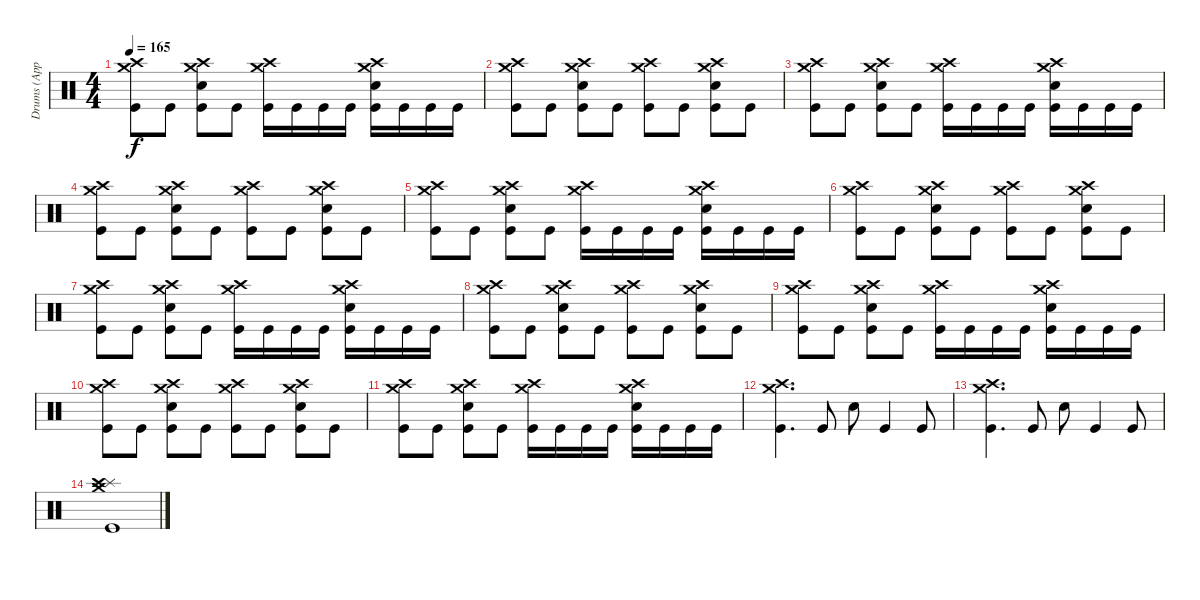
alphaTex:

\track ("Drums (Approx.)" "Drums (App") {instrument percussion}
\staff {score}
\articulation defaults
\ts (4 4)
\tempo 165
\clef neutral
\ks c
("Crash medium (hit)" "Crash high (hit)" "Kick (hit)").8{dy f} "Kick (hit)".8 ("Crash medium (hit)" "Crash high (hit)" "Electric Snare (hit)" "Kick (hit)").8 "Kick (hit)".8 ("Crash medium (hit)" "Crash high (hit)" "Kick (hit)").16 "Kick (hit)".16 "Kick (hit)".16 "Kick (hit)".16 ("Crash medium (hit)" "Crash high (hit)" "Electric Snare (hit)" "Kick (hit)").16 "Kick (hit)".16 "Kick (hit)".16 "Kick (hit)".16 |
("Crash medium (hit)" "Crash high (hit)" "Kick (hit)").8 "Kick (hit)".8 ("Crash medium (hit)" "Crash high (hit)" "Electric Snare (hit)" "Kick (hit)").8 "Kick (hit)".8 ("Crash medium (hit)" "Crash high (hit)" "Kick (hit)").8 "Kick (hit)".8 ("Crash medium (hit)" "Crash high (hit)" "Electric Snare (hit)" "Kick (hit)").8 "Kick (hit)".8 |
("Crash medium (hit)" "Crash high (hit)" "Kick (hit)").8 "Kick (hit)".8 ("Crash medium (hit)" "Crash high (hit)" "Electric Snare (hit)" "Kick (hit)").8 "Kick (hit)".8 ("Crash medium (hit)" "Crash high (hit)" "Kick (hit)").16 "Kick (hit)".16 "Kick (hit)".16 "Kick (hit)".16 ("Crash medium (hit)" "Crash high (hit)" "Electric Snare (hit)" "Kick (hit)").16 "Kick (hit)".16 "Kick (hit)".16 "Kick (hit)".16 |
("Crash medium (hit)" "Crash high (hit)" "Kick (hit)").8 "Kick (hit)".8 ("Crash medium (hit)" "Crash high (hit)" "Electric Snare (hit)" "Kick (hit)").8 "Kick (hit)".8 ("Crash medium (hit)" "Crash high (hit)" "Kick (hit)").8 "Kick (hit)".8 ("Crash medium (hit)" "Crash high (hit)" "Electric Snare (hit)" "Kick (hit)").8 "Kick (hit)".8 |
("Crash medium (hit)" "Crash high (hit)" "Kick (hit)").8 "Kick (hit)".8 ("Crash medium (hit)" "Crash high (hit)" "Electric Snare (hit)" "Kick (hit)").8 "Kick (hit)".8 ("Crash medium (hit)" "Crash high (hit)" "Kick (hit)").16 "Kick (hit)".16 "Kick (hit)".16 "Kick (hit)".16 ("Crash medium (hit)" "Crash high (hit)" "Electric Snare (hit)" "Kick (hit)").16 "Kick (hit)".16 "Kick (hit)".16 "Kick (hit)".16 |
("Crash medium (hit)" "Crash high (hit)" "Kick (hit)").8 "Kick (hit)".8 ("Crash medium (hit)" "Crash high (hit)" "Electric Snare (hit)" "Kick (hit)").8 "Kick (hit)".8 ("Crash medium (hit)" "Crash high (hit)" "Kick (hit)").8 "Kick (hit)".8 ("Crash medium (hit)" "Crash high (hit)" "Electric Snare (hit)" "Kick (hit)").8 "Kick (hit)".8 |
("Crash medium (hit)" "Crash high (hit)" "Kick (hit)").8 "Kick (hit)".8 ("Crash medium (hit)" "Crash high (hit)" "Electric Snare (hit)" "Kick (hit)").8 "Kick (hit)".8 ("Crash medium (hit)" "Crash high (hit)" "Kick (hit)").16 "Kick (hit)".16 "Kick (hit)".16 "Kick (hit)".16 ("Crash medium (hit)" "Crash high (hit)" "Electric Snare (hit)" "Kick (hit)").16 "Kick (hit)".16 "Kick (hit)".16 "Kick (hit)".16 |
("Crash medium (hit)" "Crash high (hit)" "Kick (hit)").8 "Kick (hit)".8 ("Crash medium (hit)" "Crash high (hit)" "Electric Snare (hit)" "Kick (hit)").8 "Kick (hit)".8 ("Crash medium (hit)" "Crash high (hit)" "Kick (hit)").8 "Kick (hit)".8 ("Crash medium (hit)" "Crash high (hit)" "Electric Snare (hit)" "Kick (hit)").8 "Kick (hit)".8 |
("Crash medium (hit)" "Crash high (hit)" "Kick (hit)").8 "Kick (hit)".8 ("Crash medium (hit)" "Crash high (hit)" "Electric Snare (hit)" "Kick (hit)").8 "Kick (hit)".8 ("Crash medium (hit)" "Crash high (hit)" "Kick (hit)").16 "Kick (hit)".16 "Kick (hit)".16 "Kick (hit)".16 ("Crash medium (hit)" "Crash high (hit)" "Electric Snare (hit)" "Kick (hit)").16 "Kick (hit)".16 "Kick (hit)".16 "Kick (hit)".16 |
("Crash medium (hit)" "Crash high (hit)" "Kick (hit)").8 "Kick (hit)".8 ("Crash medium (hit)" "Crash high (hit)" "Electric Snare (hit)" "Kick (hit)").8 "Kick (hit)".8 ("Crash medium (hit)" "Crash high (hit)" "Kick (hit)").8 "Kick (hit)".8 ("Crash medium (hit)" "Crash high (hit)" "Electric Snare (hit)" "Kick (hit)").8 "Kick (hit)".8 |
("Crash medium (hit)" "Crash high (hit)" "Kick (hit)").8 "Kick (hit)".8 ("Crash medium (hit)" "Crash high (hit)" "Electric Snare (hit)" "Kick (hit)").8 "Kick (hit)".8 ("Crash medium (hit)" "Crash high (hit)" "Kick (hit)").16 "Kick (hit)".16 "Kick (hit)".16 "Kick (hit)".16 ("Crash medium (hit)" "Crash high (hit)" "Electric Snare (hit)" "Kick (hit)").16 "Kick (hit)".16 "Kick (hit)".16 "Kick (hit)".16 |
("Crash medium (hit)" "Crash high (hit)" "Kick (hit)").4{d} "Kick (hit)".8 "Electric Snare (hit)".8 "Kick (hit)".4 "Kick (hit)".8 |
("Crash medium (hit)" "Crash high (hit)" "Kick (hit)").4{d} "Kick (hit)".8 "Electric Snare (hit)".8 "Kick (hit)".4 "Kick (hit)".8 |
("Splash (hit)" "Crash high (hit)" "Crash medium (hit)" "Kick (hit)").1
